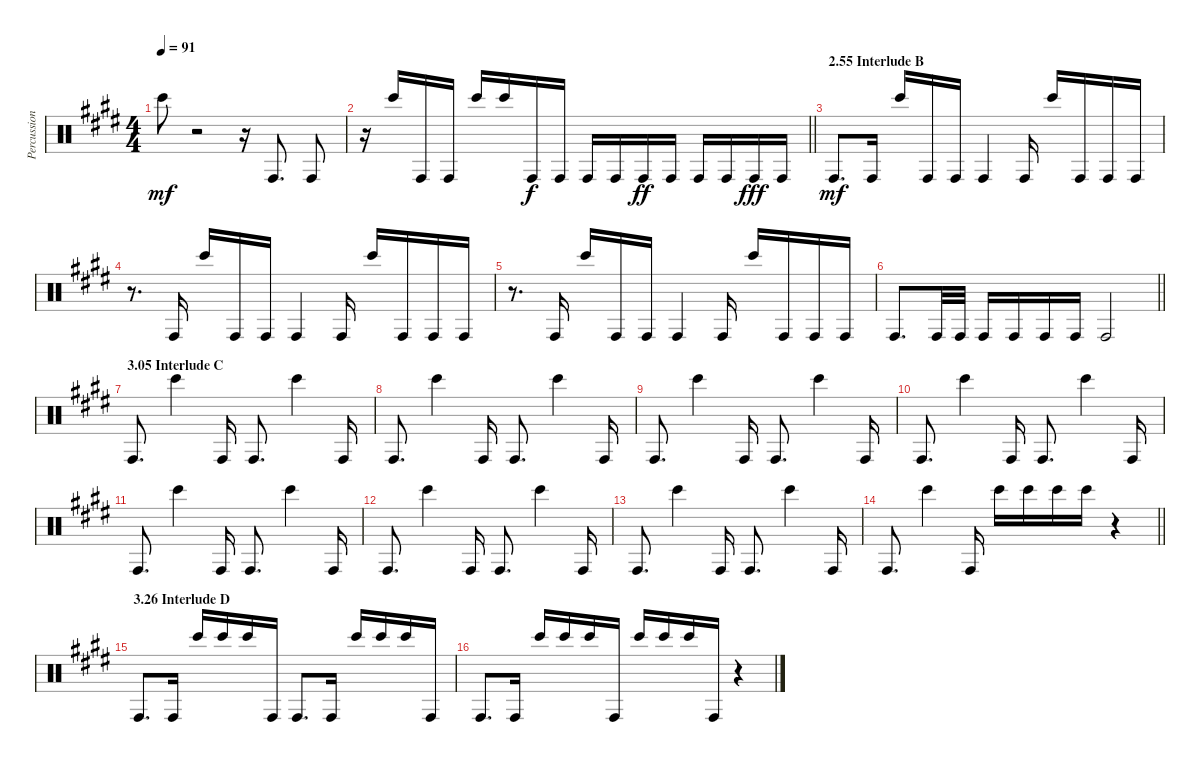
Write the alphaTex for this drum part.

\track ("Percussion" "Percussion") {instrument percussion}
\staff {score}
\articulation defaults
\ts (4 4)
\tempo 91
\clef neutral
\ks e "Bongo High (hit)".8{dy mf}
r.2 r.16 "Conga high (hit)".8{d} "Conga high (hit)".8 |
\barLineRight lightlight
r.16 "Bongo High (hit)".16 "Conga high (hit)".16 "Conga high (hit)".16 "Bongo High (hit)".16 "Bongo High (hit)".16 "Conga high (hit)".16{dy f} "Conga high (hit)".16 "Conga high (hit)".16 "Conga high (hit)".16 "Conga high (hit)".16{dy ff} "Conga high (hit)".16 "Conga high (hit)".16 "Conga high (hit)".16 "Conga high (hit)".16{dy fff} "Conga high (hit)".16 |
\section ("" "2.55 Interlude B")
"Conga high (hit)".8{d dy mf} "Conga high (hit)".16 "Bongo High (hit)".16 "Conga high (hit)".16 "Conga high (hit)".16 "Conga high (hit)".4 "Conga high (hit)".16 "Bongo High (hit)".16 "Conga high (hit)".16 "Conga high (hit)".16 "Conga high (hit)".16 |
r.8{d} "Conga high (hit)".16 "Bongo High (hit)".16 "Conga high (hit)".16 "Conga high (hit)".16 "Conga high (hit)".4 "Conga high (hit)".16 "Bongo High (hit)".16 "Conga high (hit)".16 "Conga high (hit)".16 "Conga high (hit)".16 |
r.8{d} "Conga high (hit)".16 "Bongo High (hit)".16 "Conga high (hit)".16 "Conga high (hit)".16 "Conga high (hit)".4 "Conga high (hit)".16 "Bongo High (hit)".16 "Conga high (hit)".16 "Conga high (hit)".16 "Conga high (hit)".16 |
\barLineRight lightlight "Conga high (hit)".8{d} "Conga high (hit)".32 "Conga high (hit)".32 "Conga high (hit)".16 "Conga high (hit)".16 "Conga high (hit)".16 "Conga high (hit)".16 "Conga high (hit)".2
|
\section ("" "3.05 Interlude C")
"Conga high (hit)".8{d} "Bongo High (hit)".4 "Conga high (hit)".16 "Conga high (hit)".8{d} "Bongo High (hit)".4 "Conga high (hit)".16 |
"Conga high (hit)".8{d} "Bongo High (hit)".4 "Conga high (hit)".16 "Conga high (hit)".8{d} "Bongo High (hit)".4 "Conga high (hit)".16 |
"Conga high (hit)".8{d} "Bongo High (hit)".4 "Conga high (hit)".16 "Conga high (hit)".8{d} "Bongo High (hit)".4 "Conga high (hit)".16 |
"Conga high (hit)".8{d} "Bongo High (hit)".4 "Conga high (hit)".16 "Conga high (hit)".8{d} "Bongo High (hit)".4 "Conga high (hit)".16 |
"Conga high (hit)".8{d} "Bongo High (hit)".4 "Conga high (hit)".16 "Conga high (hit)".8{d} "Bongo High (hit)".4 "Conga high (hit)".16 |
"Conga high (hit)".8{d} "Bongo High (hit)".4 "Conga high (hit)".16 "Conga high (hit)".8{d} "Bongo High (hit)".4 "Conga high (hit)".16 |
"Conga high (hit)".8{d} "Bongo High (hit)".4 "Conga high (hit)".16 "Conga high (hit)".8{d} "Bongo High (hit)".4 "Conga high (hit)".16 |
\barLineRight lightlight "Conga high (hit)".8{d} "Bongo High (hit)".4 "Conga high (hit)".16 "Bongo High (hit)".16 "Bongo High (hit)".16 "Bongo High (hit)".16 "Bongo High (hit)".16
r.4 |
\section ("" "3.26 Interlude D")
"Conga high (hit)".8{d} "Conga high (hit)".16 "Bongo High (hit)".16 "Bongo High (hit)".16 "Bongo High (hit)".16 "Conga high (hit)".16 "Conga high (hit)".8{d} "Conga high (hit)".16 "Bongo High (hit)".16 "Bongo High (hit)".16 "Bongo High (hit)".16 "Conga high (hit)".16 |
"Conga high (hit)".8{d} "Conga high (hit)".16 "Bongo High (hit)".16 "Bongo High (hit)".16 "Bongo High (hit)".16 "Conga high (hit)".16 "Bongo High (hit)".16 "Bongo High (hit)".16 "Bongo High (hit)".16 "Conga high (hit)".16 r.4
